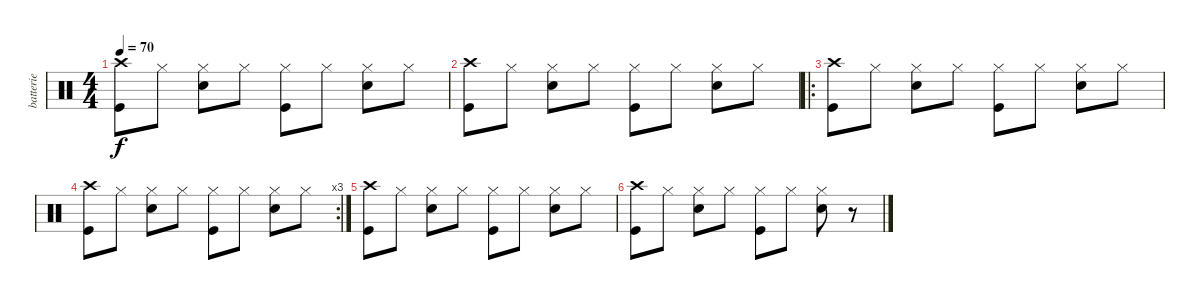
\track ("batterie" "batterie") {instrument percussion}
\staff {score}
\articulation defaults
\ts (4 4)
\tempo 70
\clef neutral
\ks c
("Crash high (hit)" "Kick (hit)").8{dy f} "Hi-Hat (closed)".8 ("Hi-Hat (closed)" "Snare (hit) 2").8 "Hi-Hat (closed)".8 ("Hi-Hat (closed)" "Kick (hit)").8 "Hi-Hat (closed)".8 ("Hi-Hat (closed)" "Snare (hit) 2").8 "Hi-Hat (closed)".8 |
("Crash high (hit)" "Kick (hit)").8 "Hi-Hat (closed)".8 ("Hi-Hat (closed)" "Snare (hit) 2").8 "Hi-Hat (closed)".8 ("Hi-Hat (closed)" "Kick (hit)").8 "Hi-Hat (closed)".8 ("Hi-Hat (closed)" "Snare (hit) 2").8 "Hi-Hat (closed)".8 |
\ro
("Crash high (hit)" "Kick (hit)").8 "Hi-Hat (closed)".8 ("Hi-Hat (closed)" "Snare (hit) 2").8 "Hi-Hat (closed)".8 ("Hi-Hat (closed)" "Kick (hit)").8 "Hi-Hat (closed)".8 ("Hi-Hat (closed)" "Snare (hit) 2").8 "Hi-Hat (closed)".8 |
\rc 3
("Crash high (hit)" "Kick (hit)").8 "Hi-Hat (closed)".8 ("Hi-Hat (closed)" "Snare (hit) 2").8 "Hi-Hat (closed)".8 ("Hi-Hat (closed)" "Kick (hit)").8 "Hi-Hat (closed)".8 ("Hi-Hat (closed)" "Snare (hit) 2").8 "Hi-Hat (closed)".8 |
("Crash high (hit)" "Kick (hit)").8 "Hi-Hat (closed)".8 ("Hi-Hat (closed)" "Snare (hit) 2").8 "Hi-Hat (closed)".8 ("Hi-Hat (closed)" "Kick (hit)").8 "Hi-Hat (closed)".8 ("Hi-Hat (closed)" "Snare (hit) 2").8 "Hi-Hat (closed)".8 |
("Crash high (hit)" "Kick (hit)").8 "Hi-Hat (closed)".8 ("Hi-Hat (closed)" "Snare (hit) 2").8 "Hi-Hat (closed)".8 ("Hi-Hat (closed)" "Kick (hit)").8 "Hi-Hat (closed)".8 ("Hi-Hat (closed)" "Snare (hit) 2").8 r.8
